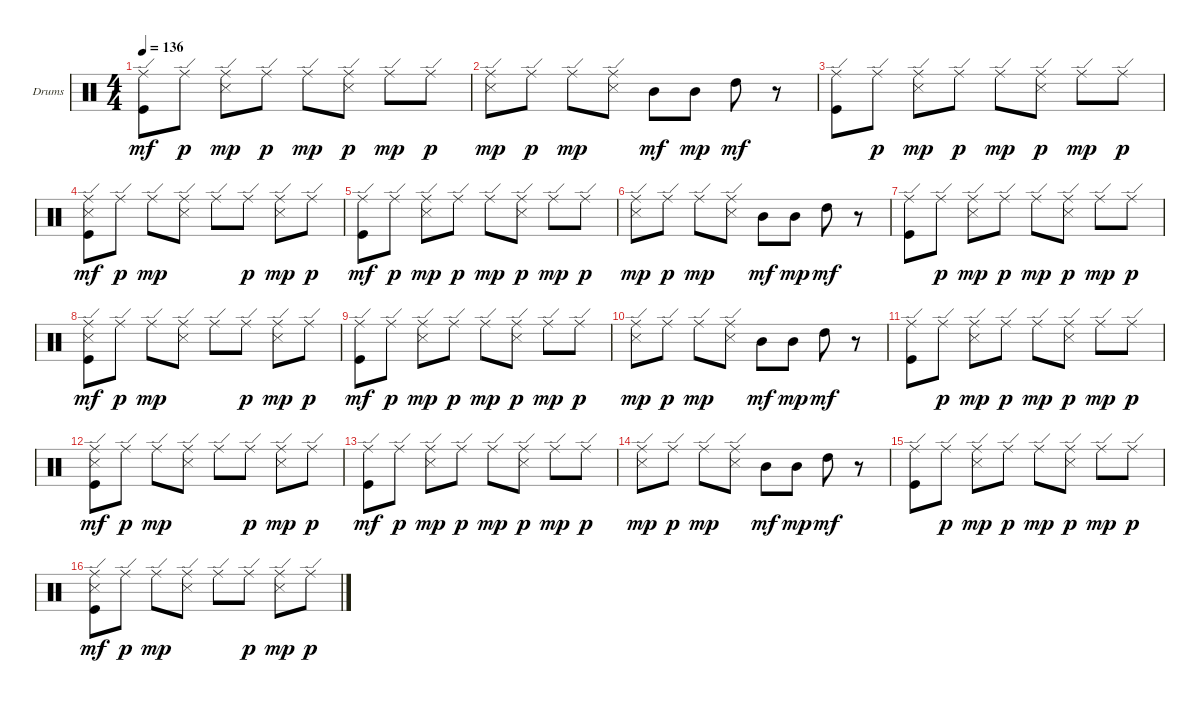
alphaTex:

\bracketExtendMode groupsimilarinstruments
\firstSystemTrackNameOrientation horizontal
\otherSystemsTrackNameOrientation horizontal
\track ("Drumkit" "Drums") {instrument percussion}
\staff {score}
\articulation defaults
\ts (4 4)
\tempo 136
\clef neutral
\ks c
("Kick (hit)" "Ride (edge)").8{dy mf} "Ride (edge)".8{dy p} ("Snare (side stick) 3" "Ride (edge)").8{dy mp} "Ride (edge)".8{dy p} "Ride (edge)".8{dy mp} ("Snare (side stick) 3" "Ride (edge)").8{dy p} "Ride (edge)".8{dy mp} "Ride (edge)".8{dy p} |
("Snare (side stick) 3" "Ride (edge)").8{dy mp} "Ride (edge)".8{dy p} "Ride (edge)".8{dy mp} ("Snare (side stick) 3" "Ride (edge)").8 "Mid Tom (hit)".8{dy mf} "Mid Tom (hit)".8{dy mp} "High Tom (hit)".8{dy mf} r.8 |
("Kick (hit)" "Ride (edge)").8 "Ride (edge)".8{dy p} ("Snare (side stick) 3" "Ride (edge)").8{dy mp} "Ride (edge)".8{dy p} "Ride (edge)".8{dy mp} ("Snare (side stick) 3" "Ride (edge)").8{dy p} "Ride (edge)".8{dy mp} "Ride (edge)".8{dy p} |
("Kick (hit)" "Snare (side stick) 3" "Ride (edge)").8{dy mf} "Ride (edge)".8{dy p} "Ride (edge)".8{dy mp} ("Snare (side stick) 3" "Ride (edge)").8 "Ride (edge)".8 "Ride (edge)".8{dy p} ("Snare (side stick) 3" "Ride (edge)").8{dy mp} "Ride (edge)".8{dy p} |
("Kick (hit)" "Ride (edge)").8{dy mf} "Ride (edge)".8{dy p} ("Snare (side stick) 3" "Ride (edge)").8{dy mp} "Ride (edge)".8{dy p} "Ride (edge)".8{dy mp} ("Snare (side stick) 3" "Ride (edge)").8{dy p} "Ride (edge)".8{dy mp} "Ride (edge)".8{dy p} |
("Snare (side stick) 3" "Ride (edge)").8{dy mp} "Ride (edge)".8{dy p} "Ride (edge)".8{dy mp} ("Snare (side stick) 3" "Ride (edge)").8 "Mid Tom (hit)".8{dy mf} "Mid Tom (hit)".8{dy mp} "High Tom (hit)".8{dy mf} r.8 |
("Kick (hit)" "Ride (edge)").8 "Ride (edge)".8{dy p} ("Snare (side stick) 3" "Ride (edge)").8{dy mp} "Ride (edge)".8{dy p} "Ride (edge)".8{dy mp} ("Snare (side stick) 3" "Ride (edge)").8{dy p} "Ride (edge)".8{dy mp} "Ride (edge)".8{dy p} |
("Kick (hit)" "Snare (side stick) 3" "Ride (edge)").8{dy mf} "Ride (edge)".8{dy p} "Ride (edge)".8{dy mp} ("Snare (side stick) 3" "Ride (edge)").8 "Ride (edge)".8 "Ride (edge)".8{dy p} ("Snare (side stick) 3" "Ride (edge)").8{dy mp} "Ride (edge)".8{dy p} |
("Kick (hit)" "Ride (edge)").8{dy mf} "Ride (edge)".8{dy p} ("Snare (side stick) 3" "Ride (edge)").8{dy mp} "Ride (edge)".8{dy p} "Ride (edge)".8{dy mp} ("Snare (side stick) 3" "Ride (edge)").8{dy p} "Ride (edge)".8{dy mp} "Ride (edge)".8{dy p} |
("Snare (side stick) 3" "Ride (edge)").8{dy mp} "Ride (edge)".8{dy p} "Ride (edge)".8{dy mp} ("Snare (side stick) 3" "Ride (edge)").8 "Mid Tom (hit)".8{dy mf} "Mid Tom (hit)".8{dy mp} "High Tom (hit)".8{dy mf} r.8 |
("Kick (hit)" "Ride (edge)").8 "Ride (edge)".8{dy p} ("Snare (side stick) 3" "Ride (edge)").8{dy mp} "Ride (edge)".8{dy p} "Ride (edge)".8{dy mp} ("Snare (side stick) 3" "Ride (edge)").8{dy p} "Ride (edge)".8{dy mp} "Ride (edge)".8{dy p} |
("Kick (hit)" "Snare (side stick) 3" "Ride (edge)").8{dy mf} "Ride (edge)".8{dy p} "Ride (edge)".8{dy mp} ("Snare (side stick) 3" "Ride (edge)").8 "Ride (edge)".8 "Ride (edge)".8{dy p} ("Snare (side stick) 3" "Ride (edge)").8{dy mp} "Ride (edge)".8{dy p} |
("Kick (hit)" "Ride (edge)").8{dy mf} "Ride (edge)".8{dy p} ("Snare (side stick) 3" "Ride (edge)").8{dy mp} "Ride (edge)".8{dy p} "Ride (edge)".8{dy mp} ("Snare (side stick) 3" "Ride (edge)").8{dy p} "Ride (edge)".8{dy mp} "Ride (edge)".8{dy p} |
("Snare (side stick) 3" "Ride (edge)").8{dy mp} "Ride (edge)".8{dy p} "Ride (edge)".8{dy mp} ("Snare (side stick) 3" "Ride (edge)").8 "Mid Tom (hit)".8{dy mf} "Mid Tom (hit)".8{dy mp} "High Tom (hit)".8{dy mf} r.8 |
("Kick (hit)" "Ride (edge)").8 "Ride (edge)".8{dy p} ("Snare (side stick) 3" "Ride (edge)").8{dy mp} "Ride (edge)".8{dy p} "Ride (edge)".8{dy mp} ("Snare (side stick) 3" "Ride (edge)").8{dy p} "Ride (edge)".8{dy mp} "Ride (edge)".8{dy p} |
("Kick (hit)" "Snare (side stick) 3" "Ride (edge)").8{dy mf} "Ride (edge)".8{dy p} "Ride (edge)".8{dy mp} ("Snare (side stick) 3" "Ride (edge)").8 "Ride (edge)".8 "Ride (edge)".8{dy p} ("Snare (side stick) 3" "Ride (edge)").8{dy mp} "Ride (edge)".8{dy p}
